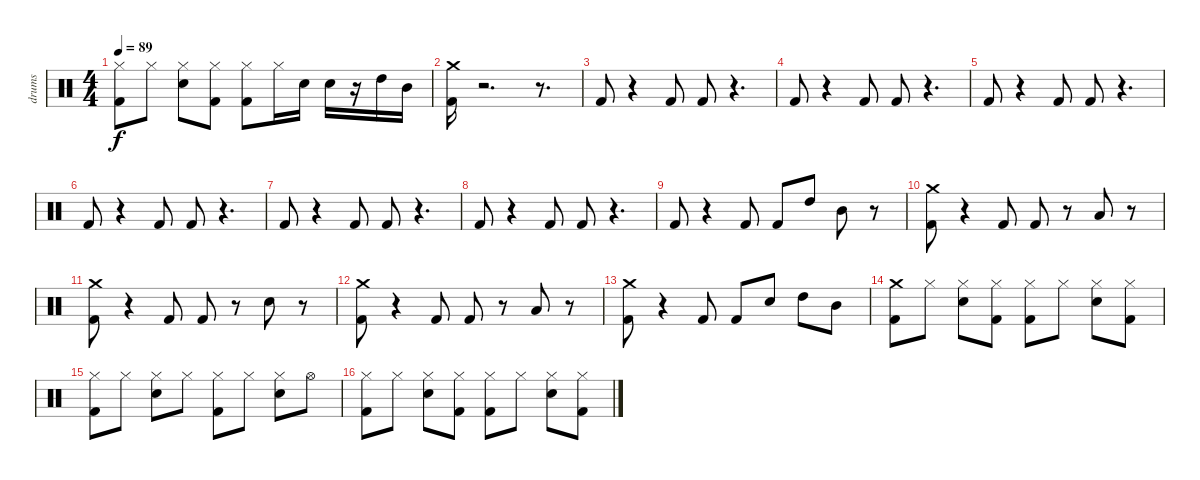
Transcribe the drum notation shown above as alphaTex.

\track ("drums" "drums") {instrument percussion}
\staff {score}
\articulation defaults
\ts (4 4)
\tempo 89
\clef neutral
\ks c
("Kick (hit) 2" "Hi-Hat (closed)").8{dy f} "Hi-Hat (closed)".8 ("Snare (hit) 2" "Hi-Hat (closed)").8 ("Kick (hit) 2" "Hi-Hat (closed)").8 ("Kick (hit) 2" "Hi-Hat (closed)").8 "Hi-Hat (closed)".16 "Snare (hit) 2".16 "Snare (hit) 2".16 r.16 "High Tom (hit)".16 "Mid Tom (hit)".16 |
("Kick (hit) 2" "Crash medium (hit)").16 r.2{d} r.8{d} |
"Kick (hit) 2".8 r.4 "Kick (hit) 2".8 "Kick (hit) 2".8 r.4{d} |
"Kick (hit) 2".8 r.4 "Kick (hit) 2".8 "Kick (hit) 2".8 r.4{d} |
"Kick (hit) 2".8 r.4 "Kick (hit) 2".8 "Kick (hit) 2".8 r.4{d} |
"Kick (hit) 2".8 r.4 "Kick (hit) 2".8 "Kick (hit) 2".8 r.4{d} |
"Kick (hit) 2".8 r.4 "Kick (hit) 2".8 "Kick (hit) 2".8 r.4{d} |
"Kick (hit) 2".8 r.4 "Kick (hit) 2".8 "Kick (hit) 2".8 r.4{d} |
"Kick (hit) 2".8 r.4 "Kick (hit) 2".8 "Kick (hit) 2".8 "High Tom (hit)".8 "Mid Tom (hit)".8 r.8 |
("Kick (hit) 2" "Crash medium (hit)").8 r.4 "Kick (hit) 2".8 "Kick (hit) 2".8 r.8 "Low Tom (hit)".8 r.8 |
("Kick (hit) 2" "Crash medium (hit)").8 r.4 "Kick (hit) 2".8 "Kick (hit) 2".8 r.8 "Snare (hit) 2".8 r.8 |
("Kick (hit) 2" "Crash medium (hit)").8 r.4 "Kick (hit) 2".8 "Kick (hit) 2".8 r.8 "Low Tom (hit)".8 r.8 |
("Kick (hit) 2" "Crash medium (hit)").8 r.4 "Kick (hit) 2".8 "Kick (hit) 2".8 "Snare (hit) 2".8 "High Tom (hit)".8 "Mid Tom (hit)".8 |
("Kick (hit) 2" "Crash medium (hit)").8 "Hi-Hat (closed)".8 ("Snare (hit) 2" "Hi-Hat (closed)").8 ("Kick (hit) 2" "Hi-Hat (closed)").8 ("Kick (hit) 2" "Hi-Hat (closed)").8 "Hi-Hat (closed)".8 ("Snare (hit) 2" "Hi-Hat (closed)").8 ("Kick (hit) 2" "Hi-Hat (closed)").8 |
("Kick (hit) 2" "Hi-Hat (closed)").8 "Hi-Hat (closed)".8 ("Snare (hit) 2" "Hi-Hat (closed)").8 "Hi-Hat (closed)".8 ("Kick (hit) 2" "Hi-Hat (closed)").8 "Hi-Hat (closed)".8 ("Snare (hit) 2" "Hi-Hat (closed)").8 "Hi-Hat (open)".8 |
("Kick (hit) 2" "Hi-Hat (closed)").8 "Hi-Hat (closed)".8 ("Snare (hit) 2" "Hi-Hat (closed)").8 ("Kick (hit) 2" "Hi-Hat (closed)").8 ("Kick (hit) 2" "Hi-Hat (closed)").8 "Hi-Hat (closed)".8 ("Snare (hit) 2" "Hi-Hat (closed)").8 ("Kick (hit) 2" "Hi-Hat (closed)").8
